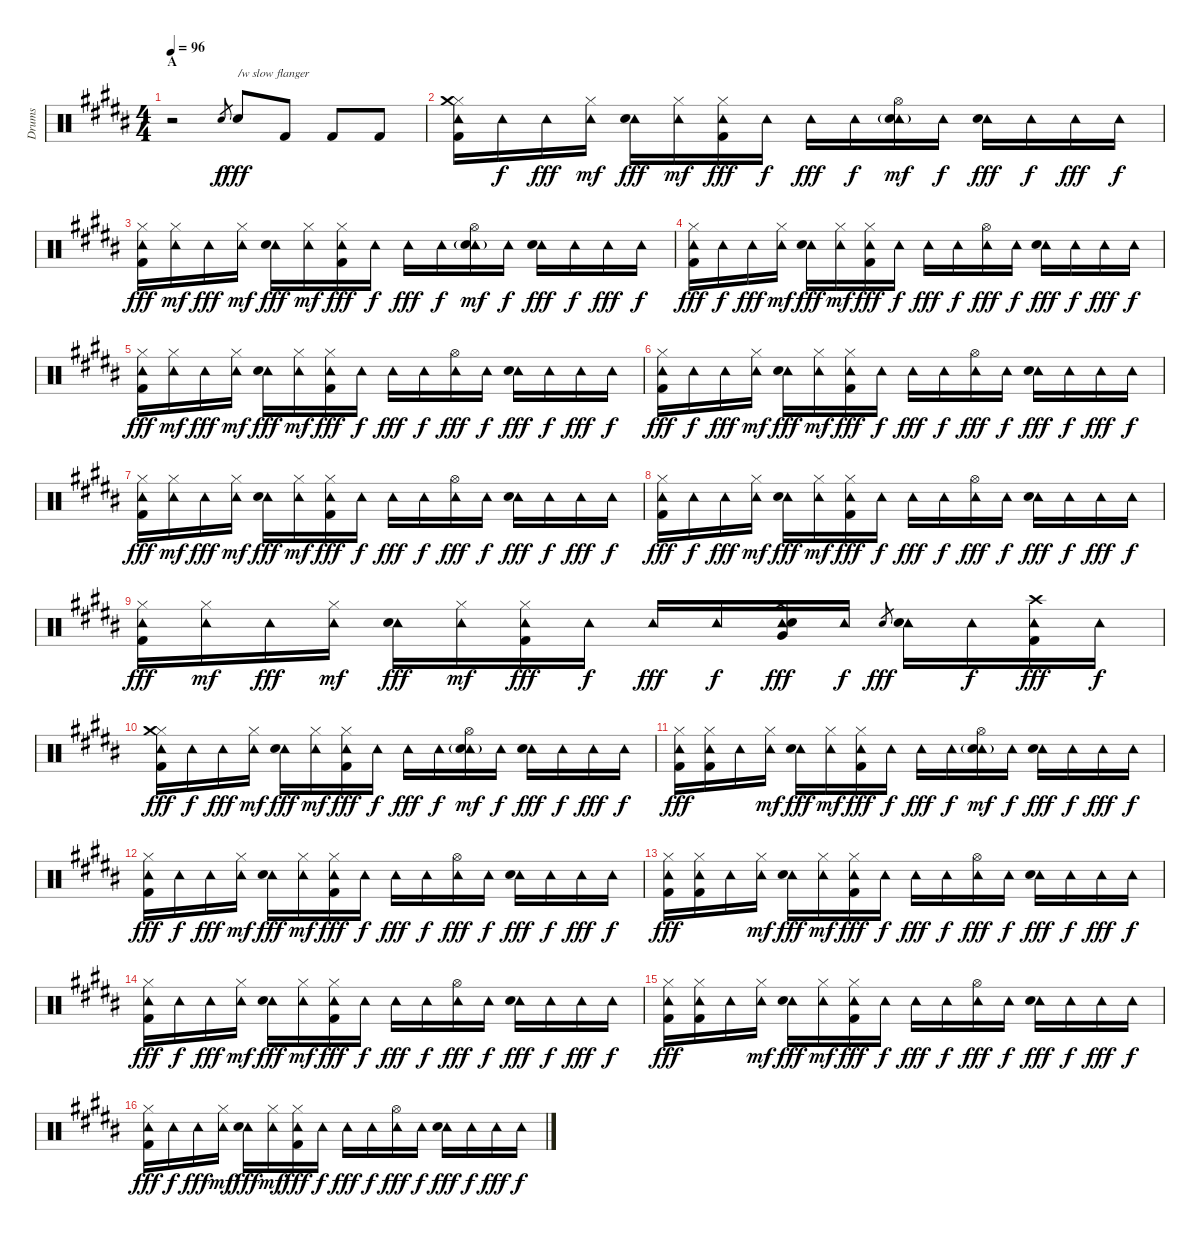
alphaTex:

\track ("Drums" "Drums") {instrument percussion}
\staff {score}
\articulation defaults
\ts (4 4)
\section ("" "A")
\tempo 96
\clef neutral
\ks b
r.2{dy f} "Snare (hit) 2".8{gr} "Snare (hit) 2".8{txt "/w slow flanger" dy fff} "Kick (hit) 2".8 "Kick (hit) 2".8 "Kick (hit) 2".8 |
("Tambourine (hit)" "Hi-Hat (closed)" "Crash medium (hit)" "Kick (hit) 2").16 "Tambourine (hit)".16{dy f} "Tambourine (hit)".16{dy fff} ("Tambourine (hit)" "Hi-Hat (closed)").16{dy mf} ("Tambourine (hit)" "Snare (hit) 2").16{dy fff} ("Tambourine (hit)" "Hi-Hat (closed)").16{dy mf} ("Tambourine (hit)" "Hi-Hat (closed)" "Kick (hit) 2").16{dy fff} "Tambourine (hit)".16{dy f} "Tambourine (hit)".16{dy fff} "Tambourine (hit)".16{dy f} ("Tambourine (hit)" "Hi-Hat (open)" "Electric Snare (hit)"{g}).16{dy mf} "Tambourine (hit)".16{dy f} ("Tambourine (hit)" "Snare (hit) 2").16{dy fff} "Tambourine (hit)".16{dy f} "Tambourine (hit)".16{dy fff} "Tambourine (hit)".16{dy f} |
("Tambourine (hit)" "Hi-Hat (closed)" "Kick (hit) 2").16{dy fff} ("Tambourine (hit)" "Hi-Hat (closed)").16{dy mf} "Tambourine (hit)".16{dy fff} ("Tambourine (hit)" "Hi-Hat (closed)").16{dy mf} ("Tambourine (hit)" "Snare (hit) 2").16{dy fff} ("Tambourine (hit)" "Hi-Hat (closed)").16{dy mf} ("Tambourine (hit)" "Hi-Hat (closed)" "Kick (hit) 2").16{dy fff} "Tambourine (hit)".16{dy f} "Tambourine (hit)".16{dy fff} "Tambourine (hit)".16{dy f} ("Tambourine (hit)" "Hi-Hat (open)" "Electric Snare (hit)"{g}).16{dy mf} "Tambourine (hit)".16{dy f} ("Tambourine (hit)" "Snare (hit) 2").16{dy fff} "Tambourine (hit)".16{dy f} "Tambourine (hit)".16{dy fff} "Tambourine (hit)".16{dy f} |
("Tambourine (hit)" "Hi-Hat (closed)" "Kick (hit) 2").16{dy fff} "Tambourine (hit)".16{dy f} "Tambourine (hit)".16{dy fff} ("Tambourine (hit)" "Hi-Hat (closed)").16{dy mf} ("Tambourine (hit)" "Snare (hit) 2").16{dy fff} ("Tambourine (hit)" "Hi-Hat (closed)").16{dy mf} ("Tambourine (hit)" "Hi-Hat (closed)" "Kick (hit) 2").16{dy fff} "Tambourine (hit)".16{dy f} "Tambourine (hit)".16{dy fff} "Tambourine (hit)".16{dy f} ("Tambourine (hit)" "Hi-Hat (open)").16{dy fff} "Tambourine (hit)".16{dy f} ("Tambourine (hit)" "Snare (hit) 2").16{dy fff} "Tambourine (hit)".16{dy f} "Tambourine (hit)".16{dy fff} "Tambourine (hit)".16{dy f} |
("Tambourine (hit)" "Hi-Hat (closed)" "Kick (hit) 2").16{dy fff} ("Tambourine (hit)" "Hi-Hat (closed)").16{dy mf} "Tambourine (hit)".16{dy fff} ("Tambourine (hit)" "Hi-Hat (closed)").16{dy mf} ("Tambourine (hit)" "Snare (hit) 2").16{dy fff} ("Tambourine (hit)" "Hi-Hat (closed)").16{dy mf} ("Tambourine (hit)" "Hi-Hat (closed)" "Kick (hit) 2").16{dy fff} "Tambourine (hit)".16{dy f} "Tambourine (hit)".16{dy fff} "Tambourine (hit)".16{dy f} ("Tambourine (hit)" "Hi-Hat (open)").16{dy fff} "Tambourine (hit)".16{dy f} ("Tambourine (hit)" "Snare (hit) 2").16{dy fff} "Tambourine (hit)".16{dy f} "Tambourine (hit)".16{dy fff} "Tambourine (hit)".16{dy f} |
("Tambourine (hit)" "Hi-Hat (closed)" "Kick (hit) 2").16{dy fff} "Tambourine (hit)".16{dy f} "Tambourine (hit)".16{dy fff} ("Tambourine (hit)" "Hi-Hat (closed)").16{dy mf} ("Tambourine (hit)" "Snare (hit) 2").16{dy fff} ("Tambourine (hit)" "Hi-Hat (closed)").16{dy mf} ("Tambourine (hit)" "Hi-Hat (closed)" "Kick (hit) 2").16{dy fff} "Tambourine (hit)".16{dy f} "Tambourine (hit)".16{dy fff} "Tambourine (hit)".16{dy f} ("Tambourine (hit)" "Hi-Hat (open)").16{dy fff} "Tambourine (hit)".16{dy f} ("Tambourine (hit)" "Snare (hit) 2").16{dy fff} "Tambourine (hit)".16{dy f} "Tambourine (hit)".16{dy fff} "Tambourine (hit)".16{dy f} |
("Tambourine (hit)" "Hi-Hat (closed)" "Kick (hit) 2").16{dy fff} ("Tambourine (hit)" "Hi-Hat (closed)").16{dy mf} "Tambourine (hit)".16{dy fff} ("Tambourine (hit)" "Hi-Hat (closed)").16{dy mf} ("Tambourine (hit)" "Snare (hit) 2").16{dy fff} ("Tambourine (hit)" "Hi-Hat (closed)").16{dy mf} ("Tambourine (hit)" "Hi-Hat (closed)" "Kick (hit) 2").16{dy fff} "Tambourine (hit)".16{dy f} "Tambourine (hit)".16{dy fff} "Tambourine (hit)".16{dy f} ("Tambourine (hit)" "Hi-Hat (open)").16{dy fff} "Tambourine (hit)".16{dy f} ("Tambourine (hit)" "Snare (hit) 2").16{dy fff} "Tambourine (hit)".16{dy f} "Tambourine (hit)".16{dy fff} "Tambourine (hit)".16{dy f} |
("Tambourine (hit)" "Hi-Hat (closed)" "Kick (hit) 2").16{dy fff} "Tambourine (hit)".16{dy f} "Tambourine (hit)".16{dy fff} ("Tambourine (hit)" "Hi-Hat (closed)").16{dy mf} ("Tambourine (hit)" "Snare (hit) 2").16{dy fff} ("Tambourine (hit)" "Hi-Hat (closed)").16{dy mf} ("Tambourine (hit)" "Hi-Hat (closed)" "Kick (hit) 2").16{dy fff} "Tambourine (hit)".16{dy f} "Tambourine (hit)".16{dy fff} "Tambourine (hit)".16{dy f} ("Tambourine (hit)" "Hi-Hat (open)").16{dy fff} "Tambourine (hit)".16{dy f} ("Tambourine (hit)" "Snare (hit) 2").16{dy fff} "Tambourine (hit)".16{dy f} "Tambourine (hit)".16{dy fff} "Tambourine (hit)".16{dy f} |
("Tambourine (hit)" "Hi-Hat (closed)" "Kick (hit) 2").16{dy fff} ("Tambourine (hit)" "Hi-Hat (closed)").16{dy mf} "Tambourine (hit)".16{dy fff} ("Tambourine (hit)" "Hi-Hat (closed)").16{dy mf} ("Tambourine (hit)" "Snare (hit) 2").16{dy fff} ("Tambourine (hit)" "Hi-Hat (closed)").16{dy mf} ("Tambourine (hit)" "Hi-Hat (closed)" "Kick (hit) 2").16{dy fff} "Tambourine (hit)".16{dy f} "Tambourine (hit)".16{dy fff} "Tambourine (hit)".16{dy f} ("Tambourine (hit)" "Crash medium (hit)" "Very Low Tom (hit)" "Snare (hit) 2").16{dy fff} "Tambourine (hit)".16{dy f} "Snare (hit) 2".8{gr dy fff} ("Tambourine (hit)" "Snare (hit) 2").16 "Tambourine (hit)".16{dy f} ("Tambourine (hit)" "Crash high (hit)" "Kick (hit) 2").16{dy fff} "Tambourine (hit)".16{dy f} |
("Tambourine (hit)" "Hi-Hat (closed)" "Crash medium (hit)" "Kick (hit) 2").16{dy fff} "Tambourine (hit)".16{dy f} "Tambourine (hit)".16{dy fff} ("Tambourine (hit)" "Hi-Hat (closed)").16{dy mf} ("Tambourine (hit)" "Snare (hit) 2").16{dy fff} ("Tambourine (hit)" "Hi-Hat (closed)").16{dy mf} ("Tambourine (hit)" "Hi-Hat (closed)" "Kick (hit) 2").16{dy fff} "Tambourine (hit)".16{dy f} "Tambourine (hit)".16{dy fff} "Tambourine (hit)".16{dy f} ("Tambourine (hit)" "Hi-Hat (open)" "Electric Snare (hit)"{g}).16{dy mf} "Tambourine (hit)".16{dy f} ("Tambourine (hit)" "Snare (hit) 2").16{dy fff} "Tambourine (hit)".16{dy f} "Tambourine (hit)".16{dy fff} "Tambourine (hit)".16{dy f} |
("Tambourine (hit)" "Hi-Hat (closed)" "Kick (hit) 2").16{dy fff} ("Tambourine (hit)" "Hi-Hat (closed)" "Kick (hit) 2").16 "Tambourine (hit)".16 ("Tambourine (hit)" "Hi-Hat (closed)").16{dy mf} ("Tambourine (hit)" "Snare (hit) 2").16{dy fff} ("Tambourine (hit)" "Hi-Hat (closed)").16{dy mf} ("Tambourine (hit)" "Hi-Hat (closed)" "Kick (hit) 2").16{dy fff} "Tambourine (hit)".16{dy f} "Tambourine (hit)".16{dy fff} "Tambourine (hit)".16{dy f} ("Tambourine (hit)" "Hi-Hat (open)" "Electric Snare (hit)"{g}).16{dy mf} "Tambourine (hit)".16{dy f} ("Tambourine (hit)" "Snare (hit) 2").16{dy fff} "Tambourine (hit)".16{dy f} "Tambourine (hit)".16{dy fff} "Tambourine (hit)".16{dy f} |
("Tambourine (hit)" "Hi-Hat (closed)" "Kick (hit) 2").16{dy fff} "Tambourine (hit)".16{dy f} "Tambourine (hit)".16{dy fff} ("Tambourine (hit)" "Hi-Hat (closed)").16{dy mf} ("Tambourine (hit)" "Snare (hit) 2").16{dy fff} ("Tambourine (hit)" "Hi-Hat (closed)").16{dy mf} ("Tambourine (hit)" "Hi-Hat (closed)" "Kick (hit) 2").16{dy fff} "Tambourine (hit)".16{dy f} "Tambourine (hit)".16{dy fff} "Tambourine (hit)".16{dy f} ("Tambourine (hit)" "Hi-Hat (open)").16{dy fff} "Tambourine (hit)".16{dy f} ("Tambourine (hit)" "Snare (hit) 2").16{dy fff} "Tambourine (hit)".16{dy f} "Tambourine (hit)".16{dy fff} "Tambourine (hit)".16{dy f} |
("Tambourine (hit)" "Hi-Hat (closed)" "Kick (hit) 2").16{dy fff} ("Tambourine (hit)" "Hi-Hat (closed)" "Kick (hit) 2").16 "Tambourine (hit)".16 ("Tambourine (hit)" "Hi-Hat (closed)").16{dy mf} ("Tambourine (hit)" "Snare (hit) 2").16{dy fff} ("Tambourine (hit)" "Hi-Hat (closed)").16{dy mf} ("Tambourine (hit)" "Hi-Hat (closed)" "Kick (hit) 2").16{dy fff} "Tambourine (hit)".16{dy f} "Tambourine (hit)".16{dy fff} "Tambourine (hit)".16{dy f} ("Tambourine (hit)" "Hi-Hat (open)").16{dy fff} "Tambourine (hit)".16{dy f} ("Tambourine (hit)" "Snare (hit) 2").16{dy fff} "Tambourine (hit)".16{dy f} "Tambourine (hit)".16{dy fff} "Tambourine (hit)".16{dy f} |
("Tambourine (hit)" "Hi-Hat (closed)" "Kick (hit) 2").16{dy fff} "Tambourine (hit)".16{dy f} "Tambourine (hit)".16{dy fff} ("Tambourine (hit)" "Hi-Hat (closed)").16{dy mf} ("Tambourine (hit)" "Snare (hit) 2").16{dy fff} ("Tambourine (hit)" "Hi-Hat (closed)").16{dy mf} ("Tambourine (hit)" "Hi-Hat (closed)" "Kick (hit) 2").16{dy fff} "Tambourine (hit)".16{dy f} "Tambourine (hit)".16{dy fff} "Tambourine (hit)".16{dy f} ("Tambourine (hit)" "Hi-Hat (open)").16{dy fff} "Tambourine (hit)".16{dy f} ("Tambourine (hit)" "Snare (hit) 2").16{dy fff} "Tambourine (hit)".16{dy f} "Tambourine (hit)".16{dy fff} "Tambourine (hit)".16{dy f} |
("Tambourine (hit)" "Hi-Hat (closed)" "Kick (hit) 2").16{dy fff} ("Tambourine (hit)" "Hi-Hat (closed)" "Kick (hit) 2").16 "Tambourine (hit)".16 ("Tambourine (hit)" "Hi-Hat (closed)").16{dy mf} ("Tambourine (hit)" "Snare (hit) 2").16{dy fff} ("Tambourine (hit)" "Hi-Hat (closed)").16{dy mf} ("Tambourine (hit)" "Hi-Hat (closed)" "Kick (hit) 2").16{dy fff} "Tambourine (hit)".16{dy f} "Tambourine (hit)".16{dy fff} "Tambourine (hit)".16{dy f} ("Tambourine (hit)" "Hi-Hat (open)").16{dy fff} "Tambourine (hit)".16{dy f} ("Tambourine (hit)" "Snare (hit) 2").16{dy fff} "Tambourine (hit)".16{dy f} "Tambourine (hit)".16{dy fff} "Tambourine (hit)".16{dy f} |
("Tambourine (hit)" "Hi-Hat (closed)" "Kick (hit) 2").16{dy fff} "Tambourine (hit)".16{dy f} "Tambourine (hit)".16{dy fff} ("Tambourine (hit)" "Hi-Hat (closed)").16{dy mf} ("Tambourine (hit)" "Snare (hit) 2").16{dy fff} ("Tambourine (hit)" "Hi-Hat (closed)").16{dy mf} ("Tambourine (hit)" "Hi-Hat (closed)" "Kick (hit) 2").16{dy fff} "Tambourine (hit)".16{dy f} "Tambourine (hit)".16{dy fff} "Tambourine (hit)".16{dy f} ("Tambourine (hit)" "Hi-Hat (open)").16{dy fff} "Tambourine (hit)".16{dy f} ("Tambourine (hit)" "Snare (hit) 2").16{dy fff} "Tambourine (hit)".16{dy f} "Tambourine (hit)".16{dy fff} "Tambourine (hit)".16{dy f}
